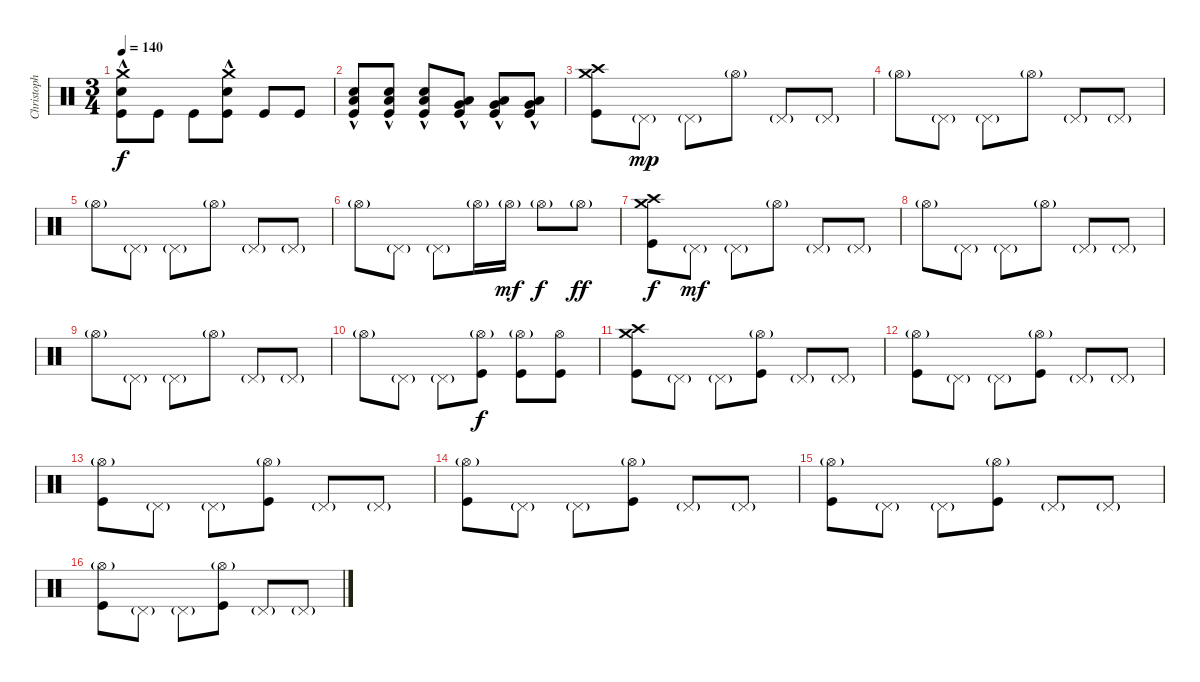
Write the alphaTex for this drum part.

\track ("Christoph \"Doom\" Schneider" "Christoph ") {instrument percussion}
\staff {score}
\articulation defaults
\ts (3 4)
\tempo 140
\clef neutral
\ks c
("Crash medium (hit)" "Kick (hit)" "Snare (hit) 2"{hac}).8{dy f} "Kick (hit)".8 "Kick (hit)".8 ("Crash medium (hit)" "Kick (hit)" "Snare (hit) 2"{hac}).8 "Kick (hit)".8 "Kick (hit)".8 |
("Kick (hit)" "Snare (hit) 2"{hac} "Low Floor Tom (hit)"{hac}).8 ("Kick (hit)" "Snare (hit) 2"{hac} "Low Floor Tom (hit)"{hac}).8 ("Kick (hit)" "Snare (hit) 2"{hac} "Low Floor Tom (hit)"{hac}).8 ("Kick (hit)" "Low Tom (hit)"{hac} "Very Low Tom (hit)"{hac}).8 ("Kick (hit)" "Low Tom (hit)"{hac} "Very Low Tom (hit)"{hac}).8 ("Kick (hit)" "Low Tom (hit)"{hac} "Very Low Tom (hit)"{hac}).8 |
("Crash high (hit)" "Kick (hit)" "Crash medium (hit)").8 "Pedal Hi-Hat (hit)"{g}.8{dy mp} "Pedal Hi-Hat (hit)"{g}.8 "Hi-Hat (open)"{g}.8 "Pedal Hi-Hat (hit)"{g}.8 "Pedal Hi-Hat (hit)"{g}.8 |
"Hi-Hat (open)"{g}.8 "Pedal Hi-Hat (hit)"{g}.8 "Pedal Hi-Hat (hit)"{g}.8 "Hi-Hat (open)"{g}.8 "Pedal Hi-Hat (hit)"{g}.8 "Pedal Hi-Hat (hit)"{g}.8 |
"Hi-Hat (open)"{g}.8 "Pedal Hi-Hat (hit)"{g}.8 "Pedal Hi-Hat (hit)"{g}.8 "Hi-Hat (open)"{g}.8 "Pedal Hi-Hat (hit)"{g}.8 "Pedal Hi-Hat (hit)"{g}.8 |
"Hi-Hat (open)"{g}.8 "Pedal Hi-Hat (hit)"{g}.8 "Pedal Hi-Hat (hit)"{g}.8 "Hi-Hat (open)"{g}.16 "Hi-Hat (open)"{g}.16{dy mf} "Hi-Hat (open)"{g}.8{dy f} "Hi-Hat (open)"{g}.8{dy ff} |
("Crash high (hit)" "Kick (hit)" "Crash medium (hit)").8{dy f} "Pedal Hi-Hat (hit)"{g}.8{dy mf} "Pedal Hi-Hat (hit)"{g}.8 "Hi-Hat (open)"{g}.8 "Pedal Hi-Hat (hit)"{g}.8 "Pedal Hi-Hat (hit)"{g}.8 |
"Hi-Hat (open)"{g}.8 "Pedal Hi-Hat (hit)"{g}.8 "Pedal Hi-Hat (hit)"{g}.8 "Hi-Hat (open)"{g}.8 "Pedal Hi-Hat (hit)"{g}.8 "Pedal Hi-Hat (hit)"{g}.8 |
"Hi-Hat (open)"{g}.8 "Pedal Hi-Hat (hit)"{g}.8 "Pedal Hi-Hat (hit)"{g}.8 "Hi-Hat (open)"{g}.8 "Pedal Hi-Hat (hit)"{g}.8 "Pedal Hi-Hat (hit)"{g}.8 |
"Hi-Hat (open)"{g}.8 "Pedal Hi-Hat (hit)"{g}.8 "Pedal Hi-Hat (hit)"{g}.8 ("Hi-Hat (open)"{g} "Kick (hit)").8{dy f} ("Hi-Hat (open)"{g} "Kick (hit)").8 ("Hi-Hat (open)" "Kick (hit)").8 |
("Crash high (hit)" "Kick (hit)" "Crash medium (hit)").8 "Pedal Hi-Hat (hit)"{g}.8 "Pedal Hi-Hat (hit)"{g}.8 ("Hi-Hat (open)"{g} "Kick (hit)").8 "Pedal Hi-Hat (hit)"{g}.8 "Pedal Hi-Hat (hit)"{g}.8 |
("Hi-Hat (open)"{g} "Kick (hit)").8 "Pedal Hi-Hat (hit)"{g}.8 "Pedal Hi-Hat (hit)"{g}.8 ("Hi-Hat (open)"{g} "Kick (hit)").8 "Pedal Hi-Hat (hit)"{g}.8 "Pedal Hi-Hat (hit)"{g}.8 |
("Hi-Hat (open)"{g} "Kick (hit)").8 "Pedal Hi-Hat (hit)"{g}.8 "Pedal Hi-Hat (hit)"{g}.8 ("Hi-Hat (open)"{g} "Kick (hit)").8 "Pedal Hi-Hat (hit)"{g}.8 "Pedal Hi-Hat (hit)"{g}.8 |
("Hi-Hat (open)"{g} "Kick (hit)").8 "Pedal Hi-Hat (hit)"{g}.8 "Pedal Hi-Hat (hit)"{g}.8 ("Hi-Hat (open)"{g} "Kick (hit)").8 "Pedal Hi-Hat (hit)"{g}.8 "Pedal Hi-Hat (hit)"{g}.8 |
("Hi-Hat (open)"{g} "Kick (hit)").8 "Pedal Hi-Hat (hit)"{g}.8 "Pedal Hi-Hat (hit)"{g}.8 ("Hi-Hat (open)"{g} "Kick (hit)").8 "Pedal Hi-Hat (hit)"{g}.8 "Pedal Hi-Hat (hit)"{g}.8 |
("Hi-Hat (open)"{g} "Kick (hit)").8 "Pedal Hi-Hat (hit)"{g}.8 "Pedal Hi-Hat (hit)"{g}.8 ("Hi-Hat (open)"{g} "Kick (hit)").8 "Pedal Hi-Hat (hit)"{g}.8 "Pedal Hi-Hat (hit)"{g}.8
